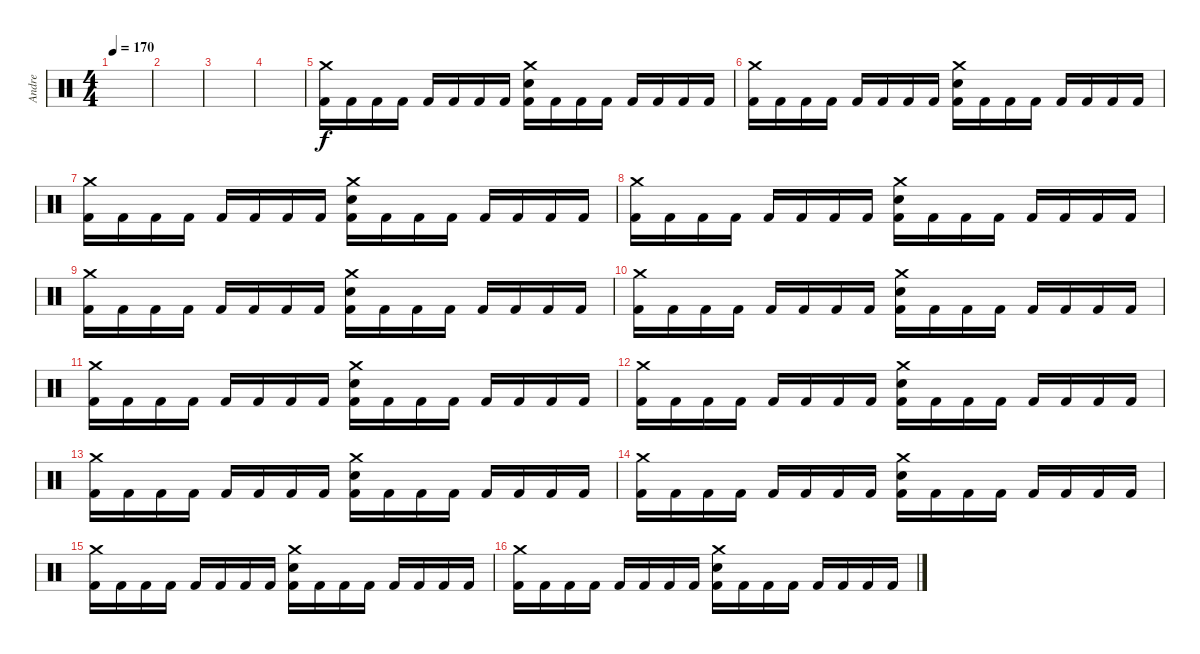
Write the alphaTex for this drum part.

\track ("Andre" "Andre") {instrument percussion}
\staff {score}
\articulation defaults
\ts (4 4)
\tempo 170
\clef neutral
\ks c
|
|
|
|
("Crash medium (hit)" "Kick (hit) 2").16 "Kick (hit) 2".16 "Kick (hit) 2".16 "Kick (hit) 2".16 "Kick (hit) 2".16 "Kick (hit) 2".16 "Kick (hit) 2".16 "Kick (hit) 2".16 ("Crash medium (hit)" "Snare (hit) 2" "Kick (hit) 2").16 "Kick (hit) 2".16 "Kick (hit) 2".16 "Kick (hit) 2".16 "Kick (hit) 2".16 "Kick (hit) 2".16 "Kick (hit) 2".16 "Kick (hit) 2".16 |
("Crash medium (hit)" "Kick (hit) 2").16 "Kick (hit) 2".16 "Kick (hit) 2".16 "Kick (hit) 2".16 "Kick (hit) 2".16 "Kick (hit) 2".16 "Kick (hit) 2".16 "Kick (hit) 2".16 ("Crash medium (hit)" "Snare (hit) 2" "Kick (hit) 2").16 "Kick (hit) 2".16 "Kick (hit) 2".16 "Kick (hit) 2".16 "Kick (hit) 2".16 "Kick (hit) 2".16 "Kick (hit) 2".16 "Kick (hit) 2".16 |
("Crash medium (hit)" "Kick (hit) 2").16 "Kick (hit) 2".16 "Kick (hit) 2".16 "Kick (hit) 2".16 "Kick (hit) 2".16 "Kick (hit) 2".16 "Kick (hit) 2".16 "Kick (hit) 2".16 ("Crash medium (hit)" "Snare (hit) 2" "Kick (hit) 2").16 "Kick (hit) 2".16 "Kick (hit) 2".16 "Kick (hit) 2".16 "Kick (hit) 2".16 "Kick (hit) 2".16 "Kick (hit) 2".16 "Kick (hit) 2".16 |
("Crash medium (hit)" "Kick (hit) 2").16 "Kick (hit) 2".16 "Kick (hit) 2".16 "Kick (hit) 2".16 "Kick (hit) 2".16 "Kick (hit) 2".16 "Kick (hit) 2".16 "Kick (hit) 2".16 ("Crash medium (hit)" "Snare (hit) 2" "Kick (hit) 2").16 "Kick (hit) 2".16 "Kick (hit) 2".16 "Kick (hit) 2".16 "Kick (hit) 2".16 "Kick (hit) 2".16 "Kick (hit) 2".16 "Kick (hit) 2".16 |
("Crash medium (hit)" "Kick (hit) 2").16 "Kick (hit) 2".16 "Kick (hit) 2".16 "Kick (hit) 2".16 "Kick (hit) 2".16 "Kick (hit) 2".16 "Kick (hit) 2".16 "Kick (hit) 2".16 ("Crash medium (hit)" "Snare (hit) 2" "Kick (hit) 2").16 "Kick (hit) 2".16 "Kick (hit) 2".16 "Kick (hit) 2".16 "Kick (hit) 2".16 "Kick (hit) 2".16 "Kick (hit) 2".16 "Kick (hit) 2".16 |
("Crash medium (hit)" "Kick (hit) 2").16 "Kick (hit) 2".16 "Kick (hit) 2".16 "Kick (hit) 2".16 "Kick (hit) 2".16 "Kick (hit) 2".16 "Kick (hit) 2".16 "Kick (hit) 2".16 ("Crash medium (hit)" "Snare (hit) 2" "Kick (hit) 2").16 "Kick (hit) 2".16 "Kick (hit) 2".16 "Kick (hit) 2".16 "Kick (hit) 2".16 "Kick (hit) 2".16 "Kick (hit) 2".16 "Kick (hit) 2".16 |
("Crash medium (hit)" "Kick (hit) 2").16 "Kick (hit) 2".16 "Kick (hit) 2".16 "Kick (hit) 2".16 "Kick (hit) 2".16 "Kick (hit) 2".16 "Kick (hit) 2".16 "Kick (hit) 2".16 ("Crash medium (hit)" "Snare (hit) 2" "Kick (hit) 2").16 "Kick (hit) 2".16 "Kick (hit) 2".16 "Kick (hit) 2".16 "Kick (hit) 2".16 "Kick (hit) 2".16 "Kick (hit) 2".16 "Kick (hit) 2".16 |
("Crash medium (hit)" "Kick (hit) 2").16 "Kick (hit) 2".16 "Kick (hit) 2".16 "Kick (hit) 2".16 "Kick (hit) 2".16 "Kick (hit) 2".16 "Kick (hit) 2".16 "Kick (hit) 2".16 ("Crash medium (hit)" "Snare (hit) 2" "Kick (hit) 2").16 "Kick (hit) 2".16 "Kick (hit) 2".16 "Kick (hit) 2".16 "Kick (hit) 2".16 "Kick (hit) 2".16 "Kick (hit) 2".16 "Kick (hit) 2".16 |
("Crash medium (hit)" "Kick (hit) 2").16 "Kick (hit) 2".16 "Kick (hit) 2".16 "Kick (hit) 2".16 "Kick (hit) 2".16 "Kick (hit) 2".16 "Kick (hit) 2".16 "Kick (hit) 2".16 ("Crash medium (hit)" "Snare (hit) 2" "Kick (hit) 2").16 "Kick (hit) 2".16 "Kick (hit) 2".16 "Kick (hit) 2".16 "Kick (hit) 2".16 "Kick (hit) 2".16 "Kick (hit) 2".16 "Kick (hit) 2".16 |
("Crash medium (hit)" "Kick (hit) 2").16 "Kick (hit) 2".16 "Kick (hit) 2".16 "Kick (hit) 2".16 "Kick (hit) 2".16 "Kick (hit) 2".16 "Kick (hit) 2".16 "Kick (hit) 2".16 ("Crash medium (hit)" "Snare (hit) 2" "Kick (hit) 2").16 "Kick (hit) 2".16 "Kick (hit) 2".16 "Kick (hit) 2".16 "Kick (hit) 2".16 "Kick (hit) 2".16 "Kick (hit) 2".16 "Kick (hit) 2".16 |
("Crash medium (hit)" "Kick (hit) 2").16 "Kick (hit) 2".16 "Kick (hit) 2".16 "Kick (hit) 2".16 "Kick (hit) 2".16 "Kick (hit) 2".16 "Kick (hit) 2".16 "Kick (hit) 2".16 ("Crash medium (hit)" "Snare (hit) 2" "Kick (hit) 2").16 "Kick (hit) 2".16 "Kick (hit) 2".16 "Kick (hit) 2".16 "Kick (hit) 2".16 "Kick (hit) 2".16 "Kick (hit) 2".16 "Kick (hit) 2".16 |
("Crash medium (hit)" "Kick (hit) 2").16 "Kick (hit) 2".16 "Kick (hit) 2".16 "Kick (hit) 2".16 "Kick (hit) 2".16 "Kick (hit) 2".16 "Kick (hit) 2".16 "Kick (hit) 2".16 ("Crash medium (hit)" "Snare (hit) 2" "Kick (hit) 2").16 "Kick (hit) 2".16 "Kick (hit) 2".16 "Kick (hit) 2".16 "Kick (hit) 2".16 "Kick (hit) 2".16 "Kick (hit) 2".16 "Kick (hit) 2".16
